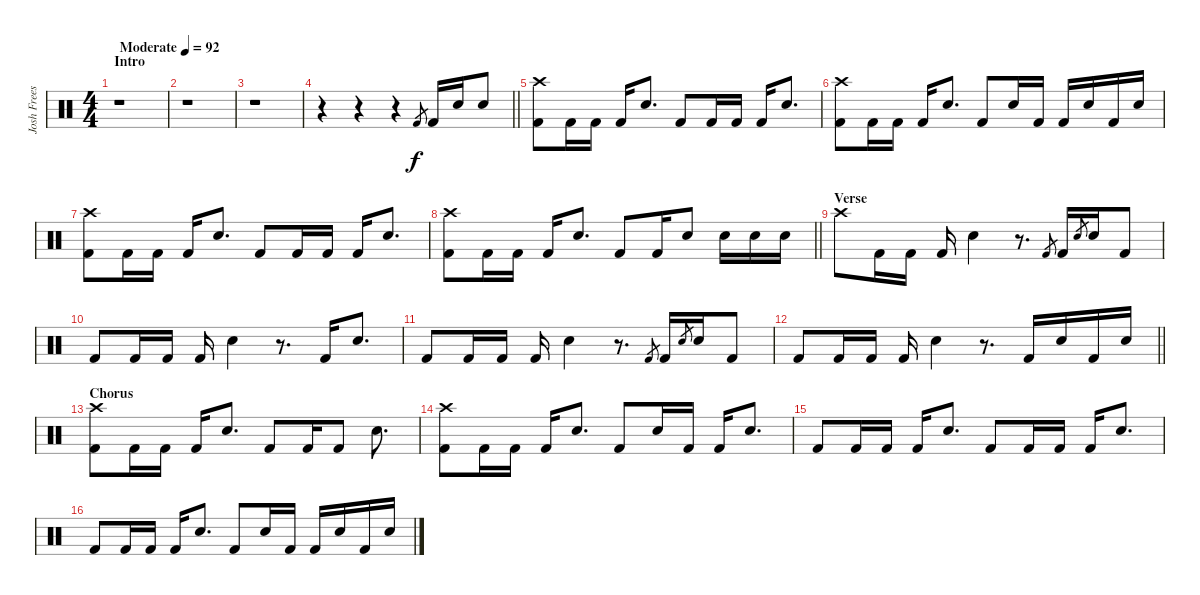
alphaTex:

\track ("Josh Freese (Studio Drummer)" "Josh Frees") {instrument percussion}
\staff {score}
\articulation defaults
\ts (4 4)
\section ("" "Intro")
\tempo (92 "Moderate")
\clef neutral
\ks c
r.1{dy f} |
r.1 |
r.1 |
\barLineRight lightlight
r.4 r.4 r.4 "Kick (hit) 2".8{gr} "Kick (hit) 2".16 "Electric Snare (hit)".16 "Electric Snare (hit)".8 |
("Crash high (hit)" "Kick (hit) 2").8 "Kick (hit) 2".16 "Kick (hit) 2".16 "Kick (hit) 2".16 "Electric Snare (hit)".8{d} "Kick (hit) 2".8 "Kick (hit) 2".16 "Kick (hit) 2".16 "Kick (hit) 2".16 "Electric Snare (hit)".8{d} |
("Crash high (hit)" "Kick (hit) 2").8 "Kick (hit) 2".16 "Kick (hit) 2".16 "Kick (hit) 2".16 "Electric Snare (hit)".8{d} "Kick (hit) 2".8 "Electric Snare (hit)".16 "Kick (hit) 2".16 "Kick (hit) 2".16 "Electric Snare (hit)".16 "Kick (hit) 2".16 "Electric Snare (hit)".16 |
("Crash high (hit)" "Kick (hit) 2").8 "Kick (hit) 2".16 "Kick (hit) 2".16 "Kick (hit) 2".16 "Electric Snare (hit)".8{d} "Kick (hit) 2".8 "Kick (hit) 2".16 "Kick (hit) 2".16 "Kick (hit) 2".16 "Electric Snare (hit)".8{d} |
\barLineRight lightlight
("Crash high (hit)" "Kick (hit) 2").8 "Kick (hit) 2".16 "Kick (hit) 2".16 "Kick (hit) 2".16 "Electric Snare (hit)".8{d} "Kick (hit) 2".8 "Kick (hit) 2".16 "Electric Snare (hit)".8 "Electric Snare (hit)".16 "Electric Snare (hit)".16 "Electric Snare (hit)".16 |
\section ("" "Verse")
"Crash high (hit)".8 "Kick (hit) 2".16 "Kick (hit) 2".16 "Kick (hit) 2".16 "Electric Snare (hit)".4 r.8{d} "Kick (hit) 2".8{gr} "Kick (hit) 2".16 "Electric Snare (hit)".8{gr} "Electric Snare (hit)".16 "Kick (hit) 2".8 |
"Kick (hit) 2".8 "Kick (hit) 2".16 "Kick (hit) 2".16 "Kick (hit) 2".16 "Electric Snare (hit)".4 r.8{d} "Kick (hit) 2".16 "Electric Snare (hit)".8{d} |
"Kick (hit) 2".8 "Kick (hit) 2".16 "Kick (hit) 2".16 "Kick (hit) 2".16 "Electric Snare (hit)".4 r.8{d} "Kick (hit) 2".8{gr} "Kick (hit) 2".16 "Electric Snare (hit)".8{gr} "Electric Snare (hit)".16 "Kick (hit) 2".8 |
\barLineRight lightlight "Kick (hit) 2".8 "Kick (hit) 2".16 "Kick (hit) 2".16 "Kick (hit) 2".16 "Electric Snare (hit)".4
r.8{d} "Kick (hit) 2".16 "Electric Snare (hit)".16 "Kick (hit) 2".16 "Electric Snare (hit)".16 |
\section ("" "Chorus")
("Crash high (hit)" "Kick (hit) 2").8 "Kick (hit) 2".16 "Kick (hit) 2".16 "Kick (hit) 2".16 "Electric Snare (hit)".8{d} "Kick (hit) 2".8 "Kick (hit) 2".16 "Kick (hit) 2".8 "Electric Snare (hit)".8{d} |
("Crash high (hit)" "Kick (hit) 2").8 "Kick (hit) 2".16 "Kick (hit) 2".16 "Kick (hit) 2".16 "Electric Snare (hit)".8{d} "Kick (hit) 2".8 "Electric Snare (hit)".16 "Kick (hit) 2".16 "Kick (hit) 2".16 "Electric Snare (hit)".8{d} |
"Kick (hit) 2".8 "Kick (hit) 2".16 "Kick (hit) 2".16 "Kick (hit) 2".16 "Electric Snare (hit)".8{d} "Kick (hit) 2".8 "Kick (hit) 2".16 "Kick (hit) 2".16 "Kick (hit) 2".16 "Electric Snare (hit)".8{d} |
"Kick (hit) 2".8 "Kick (hit) 2".16 "Kick (hit) 2".16 "Kick (hit) 2".16 "Electric Snare (hit)".8{d} "Kick (hit) 2".8 "Electric Snare (hit)".16 "Kick (hit) 2".16 "Kick (hit) 2".16 "Electric Snare (hit)".16 "Kick (hit) 2".16 "Electric Snare (hit)".16
